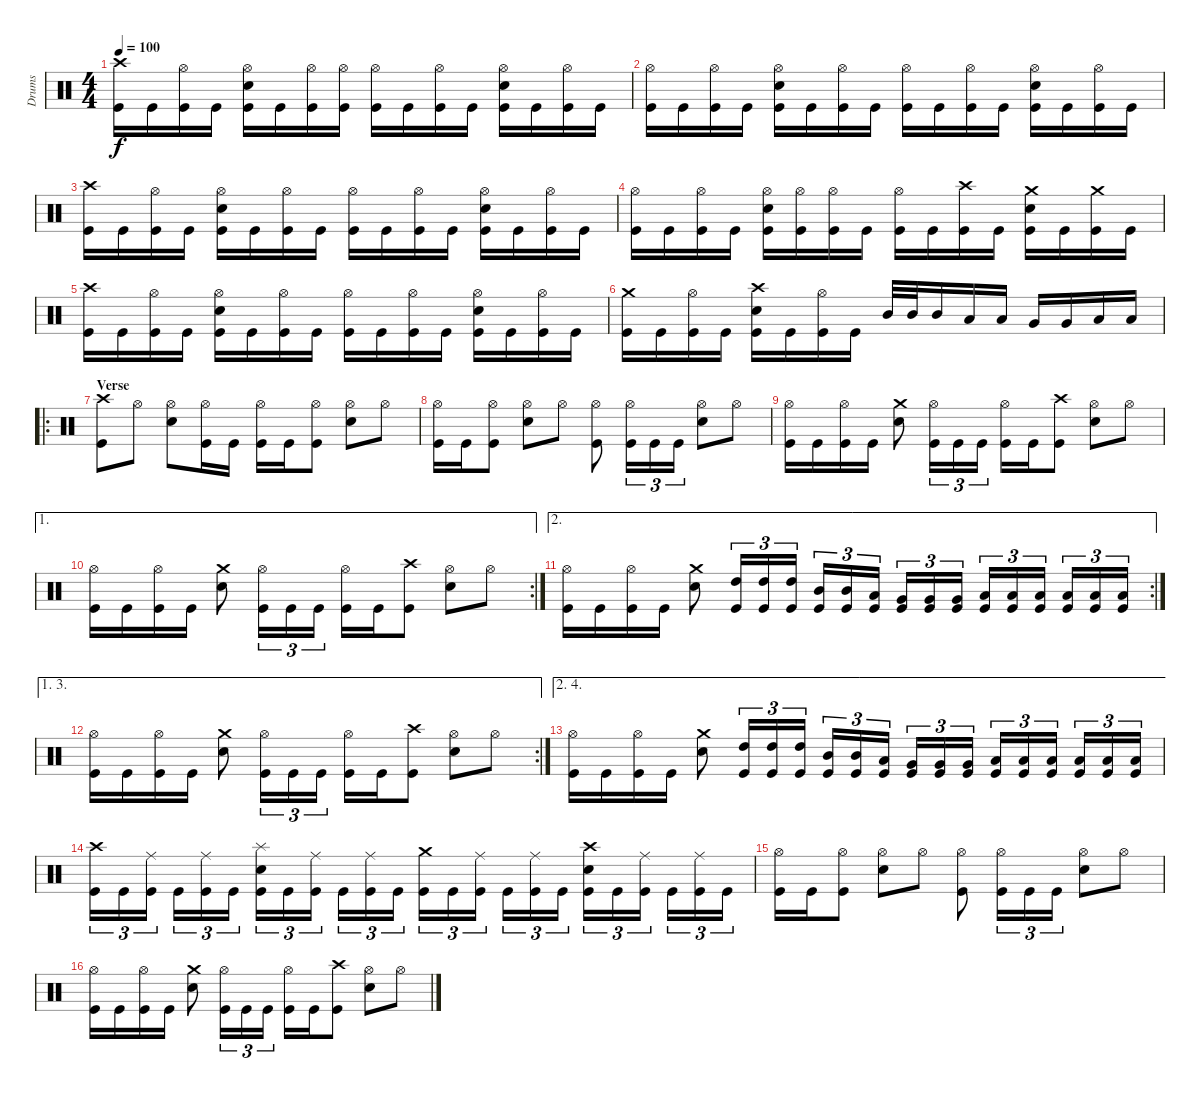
\track ("Drums" "Drums") {instrument percussion}
\staff {score}
\articulation defaults
\ts (4 4)
\tempo 100
\clef neutral
\ks c
("Crash high (hit)" "Kick (hit)").16{dy f} "Kick (hit)".16 ("Hi-Hat (open)" "Kick (hit)").16 "Kick (hit)".16 ("Hi-Hat (open)" "Electric Snare (hit)" "Kick (hit)").16 "Kick (hit)".16 ("Hi-Hat (open)" "Kick (hit)").16 ("Hi-Hat (open)" "Kick (hit)").16 ("Hi-Hat (open)" "Kick (hit)").16 "Kick (hit)".16 ("Hi-Hat (open)" "Kick (hit)").16 "Kick (hit)".16 ("Hi-Hat (open)" "Electric Snare (hit)" "Kick (hit)").16 "Kick (hit)".16 ("Hi-Hat (open)" "Kick (hit)").16 "Kick (hit)".16 |
("Hi-Hat (open)" "Kick (hit)").16 "Kick (hit)".16 ("Hi-Hat (open)" "Kick (hit)").16 "Kick (hit)".16 ("Hi-Hat (open)" "Electric Snare (hit)" "Kick (hit)").16 "Kick (hit)".16 ("Hi-Hat (open)" "Kick (hit)").16 "Kick (hit)".16 ("Hi-Hat (open)" "Kick (hit)").16 "Kick (hit)".16 ("Hi-Hat (open)" "Kick (hit)").16 "Kick (hit)".16 ("Hi-Hat (open)" "Electric Snare (hit)" "Kick (hit)").16 "Kick (hit)".16 ("Hi-Hat (open)" "Kick (hit)").16 "Kick (hit)".16 |
("Crash high (hit)" "Kick (hit)").16 "Kick (hit)".16 ("Hi-Hat (open)" "Kick (hit)").16 "Kick (hit)".16 ("Hi-Hat (open)" "Electric Snare (hit)" "Kick (hit)").16 "Kick (hit)".16 ("Hi-Hat (open)" "Kick (hit)").16 "Kick (hit)".16 ("Hi-Hat (open)" "Kick (hit)").16 "Kick (hit)".16 ("Hi-Hat (open)" "Kick (hit)").16 "Kick (hit)".16 ("Hi-Hat (open)" "Electric Snare (hit)" "Kick (hit)").16 "Kick (hit)".16 ("Hi-Hat (open)" "Kick (hit)").16 "Kick (hit)".16 |
("Hi-Hat (open)" "Kick (hit)").16 "Kick (hit)".16 ("Hi-Hat (open)" "Kick (hit)").16 "Kick (hit)".16 ("Hi-Hat (open)" "Electric Snare (hit)" "Kick (hit)").16 ("Hi-Hat (open)" "Kick (hit)").16 ("Hi-Hat (open)" "Kick (hit)").16 "Kick (hit)".16 ("Hi-Hat (open)" "Kick (hit)").16 "Kick (hit)".16 ("Crash high (hit)" "Kick (hit)").16 "Kick (hit)".16 ("Crash medium (hit)" "Electric Snare (hit)" "Kick (hit)").16 "Kick (hit)".16 ("Crash medium (hit)" "Kick (hit)").16 "Kick (hit)".16 |
("Crash high (hit)" "Kick (hit)").16 "Kick (hit)".16 ("Hi-Hat (open)" "Kick (hit)").16 "Kick (hit)".16 ("Hi-Hat (open)" "Electric Snare (hit)" "Kick (hit)").16 "Kick (hit)".16 ("Hi-Hat (open)" "Kick (hit)").16 "Kick (hit)".16 ("Hi-Hat (open)" "Kick (hit)").16 "Kick (hit)".16 ("Hi-Hat (open)" "Kick (hit)").16 "Kick (hit)".16 ("Hi-Hat (open)" "Electric Snare (hit)" "Kick (hit)").16 "Kick (hit)".16 ("Hi-Hat (open)" "Kick (hit)").16 "Kick (hit)".16 |
("Crash medium (hit)" "Kick (hit)").16 "Kick (hit)".16 ("Hi-Hat (open)" "Kick (hit)").16 "Kick (hit)".16 ("Crash high (hit)" "Electric Snare (hit)" "Kick (hit)").16 "Kick (hit)".16 ("Hi-Hat (open)" "Kick (hit)").16 "Kick (hit)".16 "Mid Tom (hit)".32 "Mid Tom (hit)".32 "Mid Tom (hit)".16 "Low Tom (hit)".16 "Low Tom (hit)".16 "Very Low Tom (hit)".16 "Very Low Tom (hit)".16 "Low Floor Tom (hit)".16 "Low Floor Tom (hit)".16 |
\ro
\section ("" "Verse")
("Crash high (hit)" "Kick (hit)").8 "Hi-Hat (open)".8 ("Hi-Hat (open)" "Electric Snare (hit)").8 ("Hi-Hat (open)" "Kick (hit)").16 "Kick (hit)".16 ("Hi-Hat (open)" "Kick (hit)").16 "Kick (hit)".16 ("Hi-Hat (open)" "Kick (hit)").8 ("Hi-Hat (open)" "Electric Snare (hit)").8 "Hi-Hat (open)".8 |
("Hi-Hat (open)" "Kick (hit)").16 "Kick (hit)".16 ("Hi-Hat (open)" "Kick (hit)").8 ("Hi-Hat (open)" "Electric Snare (hit)").8 "Hi-Hat (open)".8 ("Hi-Hat (open)" "Kick (hit)").8 ("Hi-Hat (open)" "Kick (hit)").16{tu (3 2)} "Kick (hit)".16{tu (3 2)} "Kick (hit)".16{tu (3 2)} ("Hi-Hat (open)" "Electric Snare (hit)").8 "Hi-Hat (open)".8 |
("Hi-Hat (open)" "Kick (hit)").16 "Kick (hit)".16 ("Hi-Hat (open)" "Kick (hit)").16 "Kick (hit)".16 ("Crash medium (hit)" "Electric Snare (hit)").8 ("Hi-Hat (open)" "Kick (hit)").16{tu (3 2)} "Kick (hit)".16{tu (3 2)} "Kick (hit)".16{tu (3 2)} ("Hi-Hat (open)" "Kick (hit)").16 "Kick (hit)".16 ("Crash high (hit)" "Kick (hit)").8 ("Hi-Hat (open)" "Electric Snare (hit)").8 "Hi-Hat (open)".8 |
\ae 1
\rc 2
("Hi-Hat (open)" "Kick (hit)").16 "Kick (hit)".16 ("Hi-Hat (open)" "Kick (hit)").16 "Kick (hit)".16 ("Crash medium (hit)" "Electric Snare (hit)").8 ("Hi-Hat (open)" "Kick (hit)").16{tu (3 2)} "Kick (hit)".16{tu (3 2)} "Kick (hit)".16{tu (3 2)} ("Hi-Hat (open)" "Kick (hit)").16 "Kick (hit)".16 ("Crash high (hit)" "Kick (hit)").8 ("Hi-Hat (open)" "Electric Snare (hit)").8 "Hi-Hat (open)".8 |
\ae 2
\rc 2
("Hi-Hat (open)" "Kick (hit)").16 "Kick (hit)".16 ("Hi-Hat (open)" "Kick (hit)").16 "Kick (hit)".16 ("Crash medium (hit)" "Electric Snare (hit)").8 ("High Tom (hit)" "Kick (hit)").16{tu (3 2)} ("High Tom (hit)" "Kick (hit)").16{tu (3 2)} ("High Tom (hit)" "Kick (hit)").16{tu (3 2)} ("Mid Tom (hit)" "Kick (hit)").16{tu (3 2)} ("Mid Tom (hit)" "Kick (hit)").16{tu (3 2)} ("Low Tom (hit)" "Kick (hit)").16{tu (3 2)} ("Very Low Tom (hit)" "Kick (hit)").16{tu (3 2)} ("Very Low Tom (hit)" "Kick (hit)").16{tu (3 2)} ("Very Low Tom (hit)" "Kick (hit)").16{tu (3 2)} ("Low Tom (hit)" "Kick (hit)").16{tu (3 2)} ("Low Tom (hit)" "Kick (hit)").16{tu (3 2)} ("Low Floor Tom (hit)" "Kick (hit)").16{tu (3 2)} ("Low Floor Tom (hit)" "Kick (hit)").16{tu (3 2)} ("Low Floor Tom (hit)" "Kick (hit)").16{tu (3 2)} ("Low Floor Tom (hit)" "Kick (hit)").16{tu (3 2)} |
\ae (1 3)
\rc 2
("Hi-Hat (open)" "Kick (hit)").16 "Kick (hit)".16 ("Hi-Hat (open)" "Kick (hit)").16 "Kick (hit)".16 ("Crash medium (hit)" "Electric Snare (hit)").8 ("Hi-Hat (open)" "Kick (hit)").16{tu (3 2)} "Kick (hit)".16{tu (3 2)} "Kick (hit)".16{tu (3 2)} ("Hi-Hat (open)" "Kick (hit)").16 "Kick (hit)".16 ("Crash high (hit)" "Kick (hit)").8 ("Hi-Hat (open)" "Electric Snare (hit)").8 "Hi-Hat (open)".8 |
\ae (2 4)
("Hi-Hat (open)" "Kick (hit)").16 "Kick (hit)".16 ("Hi-Hat (open)" "Kick (hit)").16 "Kick (hit)".16 ("Crash medium (hit)" "Electric Snare (hit)").8 ("High Tom (hit)" "Kick (hit)").16{tu (3 2)} ("High Tom (hit)" "Kick (hit)").16{tu (3 2)} ("High Tom (hit)" "Kick (hit)").16{tu (3 2)} ("Mid Tom (hit)" "Kick (hit)").16{tu (3 2)} ("Mid Tom (hit)" "Kick (hit)").16{tu (3 2)} ("Low Tom (hit)" "Kick (hit)").16{tu (3 2)} ("Very Low Tom (hit)" "Kick (hit)").16{tu (3 2)} ("Very Low Tom (hit)" "Kick (hit)").16{tu (3 2)} ("Very Low Tom (hit)" "Kick (hit)").16{tu (3 2)} ("Low Tom (hit)" "Kick (hit)").16{tu (3 2)} ("Low Tom (hit)" "Kick (hit)").16{tu (3 2)} ("Low Floor Tom (hit)" "Kick (hit)").16{tu (3 2)} ("Low Floor Tom (hit)" "Kick (hit)").16{tu (3 2)} ("Low Floor Tom (hit)" "Kick (hit)").16{tu (3 2)} ("Low Floor Tom (hit)" "Kick (hit)").16{tu (3 2)} |
("Crash high (hit)" "Kick (hit)").16{tu (3 2)} "Kick (hit)".16{tu (3 2)} ("Ride (middle)" "Kick (hit)").16{tu (3 2)} "Kick (hit)".16{tu (3 2)} ("Ride (middle)" "Kick (hit)").16{tu (3 2)} "Kick (hit)".16{tu (3 2)} ("Splash (hit)" "Electric Snare (hit)" "Kick (hit)").16{tu (3 2)} "Kick (hit)".16{tu (3 2)} ("Ride (middle)" "Kick (hit)").16{tu (3 2)} "Kick (hit)".16{tu (3 2)} ("Ride (middle)" "Kick (hit)").16{tu (3 2)} "Kick (hit)".16{tu (3 2)} ("Crash medium (hit)" "Kick (hit)").16{tu (3 2)} "Kick (hit)".16{tu (3 2)} ("Ride (middle)" "Kick (hit)").16{tu (3 2)} "Kick (hit)".16{tu (3 2)} ("Ride (middle)" "Kick (hit)").16{tu (3 2)} "Kick (hit)".16{tu (3 2)} ("Crash high (hit)" "Electric Snare (hit)" "Kick (hit)").16{tu (3 2)} "Kick (hit)".16{tu (3 2)} ("Ride (middle)" "Kick (hit)").16{tu (3 2)} "Kick (hit)".16{tu (3 2)} ("Ride (middle)" "Kick (hit)").16{tu (3 2)} "Kick (hit)".16{tu (3 2)} |
("Hi-Hat (open)" "Kick (hit)").16 "Kick (hit)".16 ("Hi-Hat (open)" "Kick (hit)").8 ("Hi-Hat (open)" "Electric Snare (hit)").8 "Hi-Hat (open)".8 ("Hi-Hat (open)" "Kick (hit)").8 ("Hi-Hat (open)" "Kick (hit)").16{tu (3 2)} "Kick (hit)".16{tu (3 2)} "Kick (hit)".16{tu (3 2)} ("Hi-Hat (open)" "Electric Snare (hit)").8 "Hi-Hat (open)".8 |
("Hi-Hat (open)" "Kick (hit)").16 "Kick (hit)".16 ("Hi-Hat (open)" "Kick (hit)").16 "Kick (hit)".16 ("Crash medium (hit)" "Electric Snare (hit)").8 ("Hi-Hat (open)" "Kick (hit)").16{tu (3 2)} "Kick (hit)".16{tu (3 2)} "Kick (hit)".16{tu (3 2)} ("Hi-Hat (open)" "Kick (hit)").16 "Kick (hit)".16 ("Crash high (hit)" "Kick (hit)").8 ("Hi-Hat (open)" "Electric Snare (hit)").8 "Hi-Hat (open)".8
